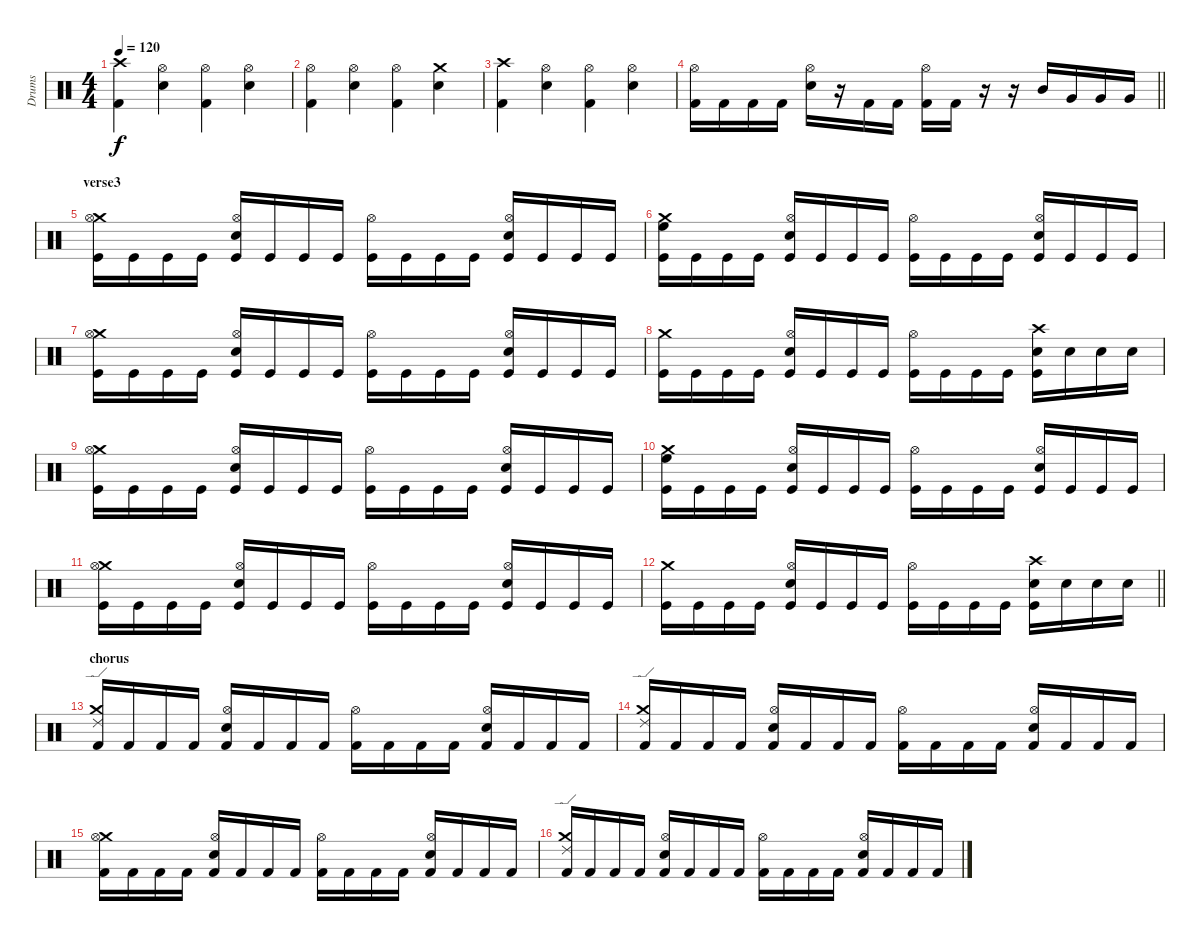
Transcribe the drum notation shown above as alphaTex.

\track ("Drums" "Drums") {instrument percussion}
\staff {score}
\articulation defaults
\ts (4 4)
\tempo 120
\clef neutral
\ks c
("Kick (hit) 2" "Crash high (hit)").4{dy f} ("Snare (hit) 2" "Hi-Hat (open)").4 ("Kick (hit) 2" "Hi-Hat (open)").4 ("Snare (hit) 2" "Hi-Hat (open)").4 |
("Kick (hit) 2" "Hi-Hat (open)").4 ("Snare (hit) 2" "Hi-Hat (open)").4 ("Kick (hit) 2" "Hi-Hat (open)").4 ("Snare (hit) 2" "Crash medium (hit)").4 |
("Kick (hit) 2" "Crash high (hit)").4 ("Snare (hit) 2" "Hi-Hat (open)").4 ("Kick (hit) 2" "Hi-Hat (open)").4 ("Snare (hit) 2" "Hi-Hat (open)").4 |
\barLineRight lightlight
("Kick (hit) 2" "Hi-Hat (open)").16 "Kick (hit) 2".16 "Kick (hit) 2".16 "Kick (hit) 2".16 ("Snare (hit) 2" "Hi-Hat (open)").16 r.16 "Kick (hit) 2".16 "Kick (hit) 2".16 ("Kick (hit) 2" "Hi-Hat (open)").16 "Kick (hit) 2".16 r.16 r.16 "Mid Tom (hit)".16 "Very Low Tom (hit)".16 "Very Low Tom (hit)".16 "Very Low Tom (hit)".16 |
\section ("" "verse3")
("Kick (hit)" "Crash medium (hit)" "Hi-Hat (open)").16 "Kick (hit)".16 "Kick (hit)".16 "Kick (hit)".16 ("Kick (hit)" "Snare (hit) 2" "Hi-Hat (open)").16 "Kick (hit)".16 "Kick (hit)".16 "Kick (hit)".16 ("Kick (hit)" "Hi-Hat (open)").16 "Kick (hit)".16 "Kick (hit)".16 "Kick (hit)".16 ("Kick (hit)" "Snare (hit) 2" "Hi-Hat (open)").16 "Kick (hit)".16 "Kick (hit)".16 "Kick (hit)".16 |
("Kick (hit)" "Crash medium (hit)" "High Floor Tom (hit)").16 "Kick (hit)".16 "Kick (hit)".16 "Kick (hit)".16 ("Kick (hit)" "Hi-Hat (open)" "Snare (hit) 2").16 "Kick (hit)".16 "Kick (hit)".16 "Kick (hit)".16 ("Kick (hit)" "Hi-Hat (open)").16 "Kick (hit)".16 "Kick (hit)".16 "Kick (hit)".16 ("Kick (hit)" "Snare (hit) 2" "Hi-Hat (open)").16 "Kick (hit)".16 "Kick (hit)".16 "Kick (hit)".16 |
("Kick (hit)" "Crash medium (hit)" "Hi-Hat (open)").16 "Kick (hit)".16 "Kick (hit)".16 "Kick (hit)".16 ("Kick (hit)" "Snare (hit) 2" "Hi-Hat (open)").16 "Kick (hit)".16 "Kick (hit)".16 "Kick (hit)".16 ("Kick (hit)" "Hi-Hat (open)").16 "Kick (hit)".16 "Kick (hit)".16 "Kick (hit)".16 ("Kick (hit)" "Snare (hit) 2" "Hi-Hat (open)").16 "Kick (hit)".16 "Kick (hit)".16 "Kick (hit)".16 |
("Kick (hit)" "Crash medium (hit)").16 "Kick (hit)".16 "Kick (hit)".16 "Kick (hit)".16 ("Kick (hit)" "Snare (hit) 2" "Hi-Hat (open)").16 "Kick (hit)".16 "Kick (hit)".16 "Kick (hit)".16 ("Kick (hit)" "Hi-Hat (open)").16 "Kick (hit)".16 "Kick (hit)".16 "Kick (hit)".16 ("Kick (hit)" "Snare (hit) 2" "Crash high (hit)").16 "Snare (hit) 2".16 "Snare (hit) 2".16 "Snare (hit) 2".16 |
("Kick (hit)" "Crash medium (hit)" "Hi-Hat (open)").16 "Kick (hit)".16 "Kick (hit)".16 "Kick (hit)".16 ("Kick (hit)" "Snare (hit) 2" "Hi-Hat (open)").16 "Kick (hit)".16 "Kick (hit)".16 "Kick (hit)".16 ("Kick (hit)" "Hi-Hat (open)").16 "Kick (hit)".16 "Kick (hit)".16 "Kick (hit)".16 ("Kick (hit)" "Snare (hit) 2" "Hi-Hat (open)").16 "Kick (hit)".16 "Kick (hit)".16 "Kick (hit)".16 |
("Kick (hit)" "Crash medium (hit)" "High Floor Tom (hit)").16 "Kick (hit)".16 "Kick (hit)".16 "Kick (hit)".16 ("Kick (hit)" "Hi-Hat (open)" "Snare (hit) 2").16 "Kick (hit)".16 "Kick (hit)".16 "Kick (hit)".16 ("Kick (hit)" "Hi-Hat (open)").16 "Kick (hit)".16 "Kick (hit)".16 "Kick (hit)".16 ("Kick (hit)" "Snare (hit) 2" "Hi-Hat (open)").16 "Kick (hit)".16 "Kick (hit)".16 "Kick (hit)".16 |
("Kick (hit)" "Crash medium (hit)" "Hi-Hat (open)").16 "Kick (hit)".16 "Kick (hit)".16 "Kick (hit)".16 ("Kick (hit)" "Snare (hit) 2" "Hi-Hat (open)").16 "Kick (hit)".16 "Kick (hit)".16 "Kick (hit)".16 ("Kick (hit)" "Hi-Hat (open)").16 "Kick (hit)".16 "Kick (hit)".16 "Kick (hit)".16 ("Kick (hit)" "Snare (hit) 2" "Hi-Hat (open)").16 "Kick (hit)".16 "Kick (hit)".16 "Kick (hit)".16 |
\barLineRight lightlight
("Kick (hit)" "Crash medium (hit)").16 "Kick (hit)".16 "Kick (hit)".16 "Kick (hit)".16 ("Kick (hit)" "Snare (hit) 2" "Hi-Hat (open)").16 "Kick (hit)".16 "Kick (hit)".16 "Kick (hit)".16 ("Kick (hit)" "Hi-Hat (open)").16 "Kick (hit)".16 "Kick (hit)".16 "Kick (hit)".16 ("Kick (hit)" "Snare (hit) 2" "Crash high (hit)").16 "Snare (hit) 2".16 "Snare (hit) 2".16 "Snare (hit) 2".16 |
\section ("" "chorus")
("Crash medium (hit)" "Ride (edge) 2" "Kick (hit) 2").16 "Kick (hit) 2".16 "Kick (hit) 2".16 "Kick (hit) 2".16 ("Hi-Hat (open)" "Electric Snare (hit)" "Kick (hit) 2").16 "Kick (hit) 2".16 "Kick (hit) 2".16 "Kick (hit) 2".16 ("Hi-Hat (open)" "Kick (hit) 2").16 "Kick (hit) 2".16 "Kick (hit) 2".16 "Kick (hit) 2".16 ("Hi-Hat (open)" "Electric Snare (hit)" "Kick (hit) 2").16 "Kick (hit) 2".16 "Kick (hit) 2".16 "Kick (hit) 2".16 |
("Crash medium (hit)" "Ride (edge) 2" "Kick (hit) 2").16 "Kick (hit) 2".16 "Kick (hit) 2".16 "Kick (hit) 2".16 ("Hi-Hat (open)" "Electric Snare (hit)" "Kick (hit) 2").16 "Kick (hit) 2".16 "Kick (hit) 2".16 "Kick (hit) 2".16 ("Hi-Hat (open)" "Kick (hit) 2").16 "Kick (hit) 2".16 "Kick (hit) 2".16 "Kick (hit) 2".16 ("Hi-Hat (open)" "Electric Snare (hit)" "Kick (hit) 2").16 "Kick (hit) 2".16 "Kick (hit) 2".16 "Kick (hit) 2".16 |
("Crash medium (hit)" "Hi-Hat (open)" "Kick (hit) 2").16 "Kick (hit) 2".16 "Kick (hit) 2".16 "Kick (hit) 2".16 ("Hi-Hat (open)" "Electric Snare (hit)" "Kick (hit) 2").16 "Kick (hit) 2".16 "Kick (hit) 2".16 "Kick (hit) 2".16 ("Hi-Hat (open)" "Kick (hit) 2").16 "Kick (hit) 2".16 "Kick (hit) 2".16 "Kick (hit) 2".16 ("Hi-Hat (open)" "Electric Snare (hit)" "Kick (hit) 2").16 "Kick (hit) 2".16 "Kick (hit) 2".16 "Kick (hit) 2".16 |
("Crash medium (hit)" "Ride (edge) 2" "Kick (hit) 2").16 "Kick (hit) 2".16 "Kick (hit) 2".16 "Kick (hit) 2".16 ("Hi-Hat (open)" "Electric Snare (hit)" "Kick (hit) 2").16 "Kick (hit) 2".16 "Kick (hit) 2".16 "Kick (hit) 2".16 ("Hi-Hat (open)" "Kick (hit) 2").16 "Kick (hit) 2".16 "Kick (hit) 2".16 "Kick (hit) 2".16 ("Hi-Hat (open)" "Electric Snare (hit)" "Kick (hit) 2").16 "Kick (hit) 2".16 "Kick (hit) 2".16 "Kick (hit) 2".16
